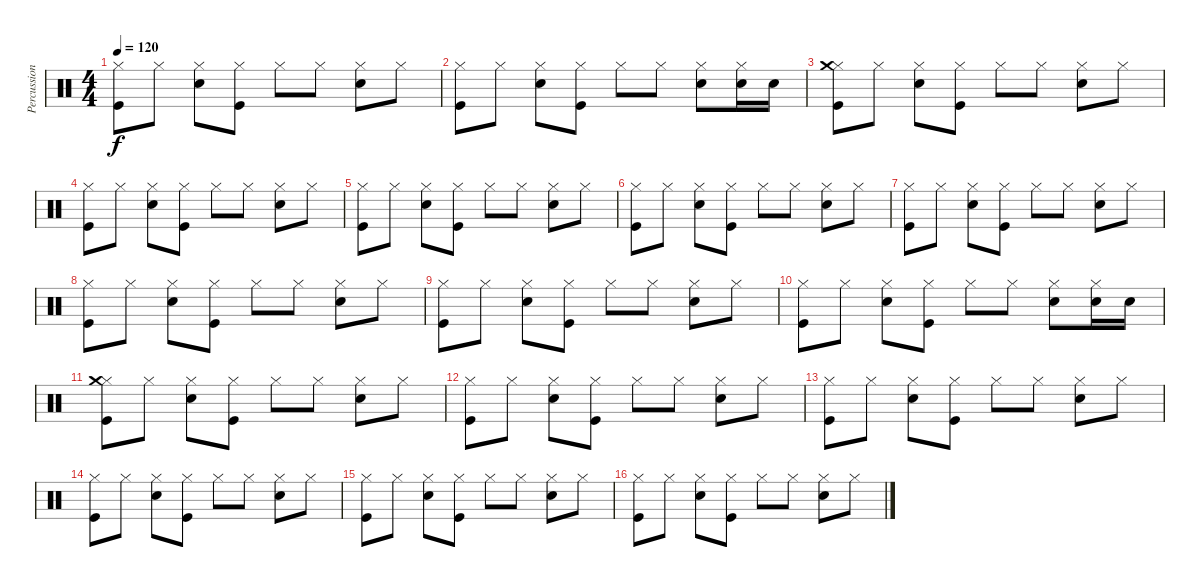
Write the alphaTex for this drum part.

\track ("Percussion" "Percussion") {instrument percussion}
\staff {score}
\articulation defaults
\ts (4 4)
\tempo 120
\clef neutral
\ks c
("Kick (hit)" "Hi-Hat (closed)").8{dy f} "Hi-Hat (closed)".8 ("Electric Snare (hit)" "Hi-Hat (closed)").8 ("Kick (hit)" "Hi-Hat (closed)").8 "Hi-Hat (closed)".8 "Hi-Hat (closed)".8 ("Electric Snare (hit)" "Hi-Hat (closed)").8 "Hi-Hat (closed)".8 |
("Kick (hit)" "Hi-Hat (closed)").8 "Hi-Hat (closed)".8 ("Electric Snare (hit)" "Hi-Hat (closed)").8 ("Kick (hit)" "Hi-Hat (closed)").8 "Hi-Hat (closed)".8 "Hi-Hat (closed)".8 ("Electric Snare (hit)" "Hi-Hat (closed)").8 ("Electric Snare (hit)" "Hi-Hat (closed)").16 "Electric Snare (hit)".16 |
("Kick (hit)" "Hi-Hat (closed)" "Crash medium (hit)").8 "Hi-Hat (closed)".8 ("Electric Snare (hit)" "Hi-Hat (closed)").8 ("Kick (hit)" "Hi-Hat (closed)").8 "Hi-Hat (closed)".8 "Hi-Hat (closed)".8 ("Electric Snare (hit)" "Hi-Hat (closed)").8 "Hi-Hat (closed)".8 |
("Kick (hit)" "Hi-Hat (closed)").8 "Hi-Hat (closed)".8 ("Electric Snare (hit)" "Hi-Hat (closed)").8 ("Kick (hit)" "Hi-Hat (closed)").8 "Hi-Hat (closed)".8 "Hi-Hat (closed)".8 ("Electric Snare (hit)" "Hi-Hat (closed)").8 "Hi-Hat (closed)".8 |
("Kick (hit)" "Hi-Hat (closed)").8 "Hi-Hat (closed)".8 ("Electric Snare (hit)" "Hi-Hat (closed)").8 ("Kick (hit)" "Hi-Hat (closed)").8 "Hi-Hat (closed)".8 "Hi-Hat (closed)".8 ("Electric Snare (hit)" "Hi-Hat (closed)").8 "Hi-Hat (closed)".8 |
("Kick (hit)" "Hi-Hat (closed)").8 "Hi-Hat (closed)".8 ("Electric Snare (hit)" "Hi-Hat (closed)").8 ("Kick (hit)" "Hi-Hat (closed)").8 "Hi-Hat (closed)".8 "Hi-Hat (closed)".8 ("Electric Snare (hit)" "Hi-Hat (closed)").8 "Hi-Hat (closed)".8 |
("Kick (hit)" "Hi-Hat (closed)").8 "Hi-Hat (closed)".8 ("Electric Snare (hit)" "Hi-Hat (closed)").8 ("Kick (hit)" "Hi-Hat (closed)").8 "Hi-Hat (closed)".8 "Hi-Hat (closed)".8 ("Electric Snare (hit)" "Hi-Hat (closed)").8 "Hi-Hat (closed)".8 |
("Kick (hit)" "Hi-Hat (closed)").8 "Hi-Hat (closed)".8 ("Electric Snare (hit)" "Hi-Hat (closed)").8 ("Kick (hit)" "Hi-Hat (closed)").8 "Hi-Hat (closed)".8 "Hi-Hat (closed)".8 ("Electric Snare (hit)" "Hi-Hat (closed)").8 "Hi-Hat (closed)".8 |
("Kick (hit)" "Hi-Hat (closed)").8 "Hi-Hat (closed)".8 ("Electric Snare (hit)" "Hi-Hat (closed)").8 ("Kick (hit)" "Hi-Hat (closed)").8 "Hi-Hat (closed)".8 "Hi-Hat (closed)".8 ("Electric Snare (hit)" "Hi-Hat (closed)").8 "Hi-Hat (closed)".8 |
("Kick (hit)" "Hi-Hat (closed)").8 "Hi-Hat (closed)".8 ("Electric Snare (hit)" "Hi-Hat (closed)").8 ("Kick (hit)" "Hi-Hat (closed)").8 "Hi-Hat (closed)".8 "Hi-Hat (closed)".8 ("Electric Snare (hit)" "Hi-Hat (closed)").8 ("Electric Snare (hit)" "Hi-Hat (closed)").16 "Electric Snare (hit)".16 |
("Kick (hit)" "Hi-Hat (closed)" "Crash medium (hit)").8 "Hi-Hat (closed)".8 ("Electric Snare (hit)" "Hi-Hat (closed)").8 ("Kick (hit)" "Hi-Hat (closed)").8 "Hi-Hat (closed)".8 "Hi-Hat (closed)".8 ("Electric Snare (hit)" "Hi-Hat (closed)").8 "Hi-Hat (closed)".8 |
("Kick (hit)" "Hi-Hat (closed)").8 "Hi-Hat (closed)".8 ("Electric Snare (hit)" "Hi-Hat (closed)").8 ("Kick (hit)" "Hi-Hat (closed)").8 "Hi-Hat (closed)".8 "Hi-Hat (closed)".8 ("Electric Snare (hit)" "Hi-Hat (closed)").8 "Hi-Hat (closed)".8 |
("Kick (hit)" "Hi-Hat (closed)").8 "Hi-Hat (closed)".8 ("Electric Snare (hit)" "Hi-Hat (closed)").8 ("Kick (hit)" "Hi-Hat (closed)").8 "Hi-Hat (closed)".8 "Hi-Hat (closed)".8 ("Electric Snare (hit)" "Hi-Hat (closed)").8 "Hi-Hat (closed)".8 |
("Kick (hit)" "Hi-Hat (closed)").8 "Hi-Hat (closed)".8 ("Electric Snare (hit)" "Hi-Hat (closed)").8 ("Kick (hit)" "Hi-Hat (closed)").8 "Hi-Hat (closed)".8 "Hi-Hat (closed)".8 ("Electric Snare (hit)" "Hi-Hat (closed)").8 "Hi-Hat (closed)".8 |
("Kick (hit)" "Hi-Hat (closed)").8 "Hi-Hat (closed)".8 ("Electric Snare (hit)" "Hi-Hat (closed)").8 ("Kick (hit)" "Hi-Hat (closed)").8 "Hi-Hat (closed)".8 "Hi-Hat (closed)".8 ("Electric Snare (hit)" "Hi-Hat (closed)").8 "Hi-Hat (closed)".8 |
("Kick (hit)" "Hi-Hat (closed)").8 "Hi-Hat (closed)".8 ("Electric Snare (hit)" "Hi-Hat (closed)").8 ("Kick (hit)" "Hi-Hat (closed)").8 "Hi-Hat (closed)".8 "Hi-Hat (closed)".8 ("Electric Snare (hit)" "Hi-Hat (closed)").8 "Hi-Hat (closed)".8
